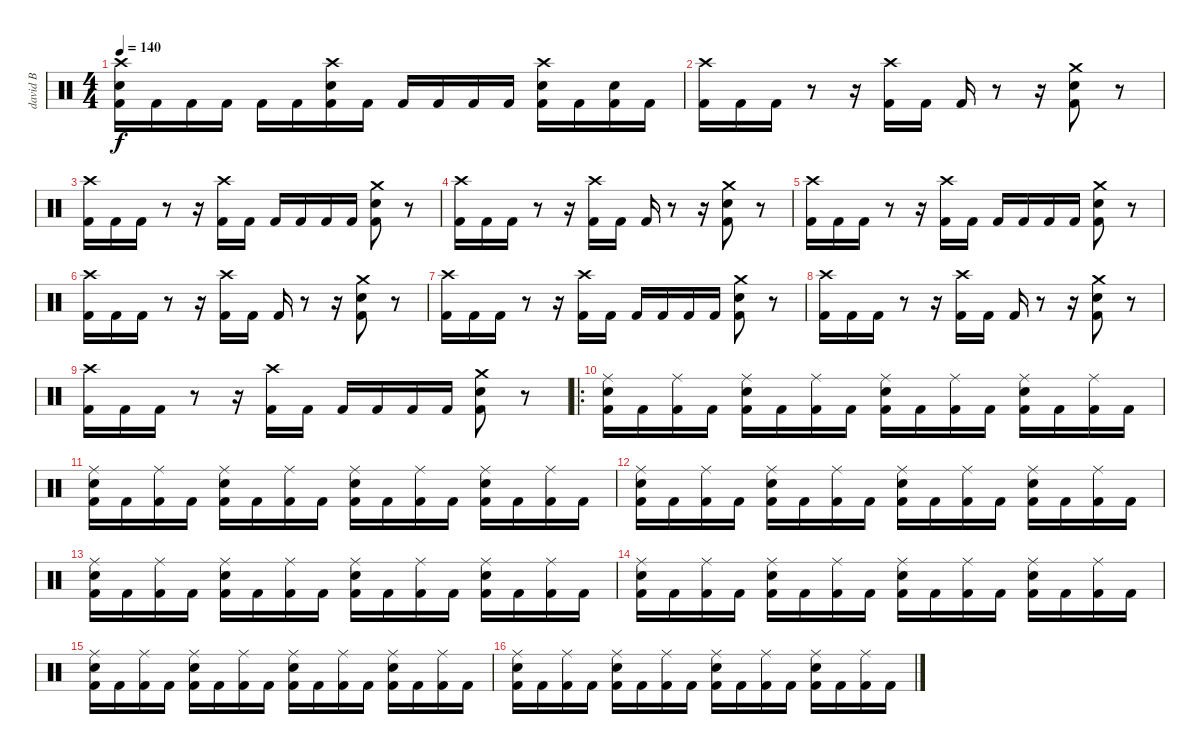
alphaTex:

\track ("david B" "david B") {instrument percussion}
\staff {score}
\articulation defaults
\ts (4 4)
\tempo 140
\clef neutral
\ks c
("Crash high (hit)" "Electric Snare (hit)" "Kick (hit) 2").16{dy f} "Kick (hit) 2".16 "Kick (hit) 2".16 "Kick (hit) 2".16 "Kick (hit) 2".16 "Kick (hit) 2".16 ("Crash high (hit)" "Electric Snare (hit)" "Kick (hit) 2").16 "Kick (hit) 2".16 "Kick (hit) 2".16 "Kick (hit) 2".16 "Kick (hit) 2".16 "Kick (hit) 2".16 ("Crash high (hit)" "Electric Snare (hit)" "Kick (hit) 2").16 "Kick (hit) 2".16 ("Electric Snare (hit)" "Kick (hit) 2").16 "Kick (hit) 2".16 |
("Crash high (hit)" "Kick (hit) 2").16 "Kick (hit) 2".16 "Kick (hit) 2".16 r.8 r.16 ("Crash high (hit)" "Kick (hit) 2").16 "Kick (hit) 2".16 "Kick (hit) 2".16 r.8 r.16 ("Crash medium (hit)" "Electric Snare (hit)" "Kick (hit) 2").8 r.8 |
("Crash high (hit)" "Kick (hit) 2").16 "Kick (hit) 2".16 "Kick (hit) 2".16 r.8 r.16 ("Crash high (hit)" "Kick (hit) 2").16 "Kick (hit) 2".16 "Kick (hit) 2".16 "Kick (hit) 2".16 "Kick (hit) 2".16 "Kick (hit) 2".16 ("Crash medium (hit)" "Electric Snare (hit)" "Kick (hit) 2").8 r.8 |
("Crash high (hit)" "Kick (hit) 2").16 "Kick (hit) 2".16 "Kick (hit) 2".16 r.8 r.16 ("Crash high (hit)" "Kick (hit) 2").16 "Kick (hit) 2".16 "Kick (hit) 2".16 r.8 r.16 ("Crash medium (hit)" "Electric Snare (hit)" "Kick (hit) 2").8 r.8 |
("Crash high (hit)" "Kick (hit) 2").16 "Kick (hit) 2".16 "Kick (hit) 2".16 r.8 r.16 ("Crash high (hit)" "Kick (hit) 2").16 "Kick (hit) 2".16 "Kick (hit) 2".16 "Kick (hit) 2".16 "Kick (hit) 2".16 "Kick (hit) 2".16 ("Crash medium (hit)" "Electric Snare (hit)" "Kick (hit) 2").8 r.8 |
("Crash high (hit)" "Kick (hit) 2").16 "Kick (hit) 2".16 "Kick (hit) 2".16 r.8 r.16 ("Crash high (hit)" "Kick (hit) 2").16 "Kick (hit) 2".16 "Kick (hit) 2".16 r.8 r.16 ("Crash medium (hit)" "Electric Snare (hit)" "Kick (hit) 2").8 r.8 |
("Crash high (hit)" "Kick (hit) 2").16 "Kick (hit) 2".16 "Kick (hit) 2".16 r.8 r.16 ("Crash high (hit)" "Kick (hit) 2").16 "Kick (hit) 2".16 "Kick (hit) 2".16 "Kick (hit) 2".16 "Kick (hit) 2".16 "Kick (hit) 2".16 ("Crash medium (hit)" "Electric Snare (hit)" "Kick (hit) 2").8 r.8 |
("Crash high (hit)" "Kick (hit) 2").16 "Kick (hit) 2".16 "Kick (hit) 2".16 r.8 r.16 ("Crash high (hit)" "Kick (hit) 2").16 "Kick (hit) 2".16 "Kick (hit) 2".16 r.8 r.16 ("Crash medium (hit)" "Electric Snare (hit)" "Kick (hit) 2").8 r.8 |
("Crash high (hit)" "Kick (hit) 2").16 "Kick (hit) 2".16 "Kick (hit) 2".16 r.8 r.16 ("Crash high (hit)" "Kick (hit) 2").16 "Kick (hit) 2".16 "Kick (hit) 2".16 "Kick (hit) 2".16 "Kick (hit) 2".16 "Kick (hit) 2".16 ("Crash medium (hit)" "Electric Snare (hit)" "Kick (hit) 2").8 r.8 |
\ro
("Ride (middle)" "Electric Snare (hit)" "Kick (hit) 2").16 "Kick (hit) 2".16 ("Ride (middle)" "Kick (hit) 2").16 "Kick (hit) 2".16 ("Ride (middle)" "Electric Snare (hit)" "Kick (hit) 2").16 "Kick (hit) 2".16 ("Ride (middle)" "Kick (hit) 2").16 "Kick (hit) 2".16 ("Ride (middle)" "Electric Snare (hit)" "Kick (hit) 2").16 "Kick (hit) 2".16 ("Ride (middle)" "Kick (hit) 2").16 "Kick (hit) 2".16 ("Ride (middle)" "Electric Snare (hit)" "Kick (hit) 2").16 "Kick (hit) 2".16 ("Ride (middle)" "Kick (hit) 2").16 "Kick (hit) 2".16 |
("Ride (middle)" "Electric Snare (hit)" "Kick (hit) 2").16 "Kick (hit) 2".16 ("Ride (middle)" "Kick (hit) 2").16 "Kick (hit) 2".16 ("Ride (middle)" "Electric Snare (hit)" "Kick (hit) 2").16 "Kick (hit) 2".16 ("Ride (middle)" "Kick (hit) 2").16 "Kick (hit) 2".16 ("Ride (middle)" "Electric Snare (hit)" "Kick (hit) 2").16 "Kick (hit) 2".16 ("Ride (middle)" "Kick (hit) 2").16 "Kick (hit) 2".16 ("Ride (middle)" "Electric Snare (hit)" "Kick (hit) 2").16 "Kick (hit) 2".16 ("Ride (middle)" "Kick (hit) 2").16 "Kick (hit) 2".16 |
("Ride (middle)" "Electric Snare (hit)" "Kick (hit) 2").16 "Kick (hit) 2".16 ("Ride (middle)" "Kick (hit) 2").16 "Kick (hit) 2".16 ("Ride (middle)" "Electric Snare (hit)" "Kick (hit) 2").16 "Kick (hit) 2".16 ("Ride (middle)" "Kick (hit) 2").16 "Kick (hit) 2".16 ("Ride (middle)" "Electric Snare (hit)" "Kick (hit) 2").16 "Kick (hit) 2".16 ("Ride (middle)" "Kick (hit) 2").16 "Kick (hit) 2".16 ("Ride (middle)" "Electric Snare (hit)" "Kick (hit) 2").16 "Kick (hit) 2".16 ("Ride (middle)" "Kick (hit) 2").16 "Kick (hit) 2".16 |
("Ride (middle)" "Electric Snare (hit)" "Kick (hit) 2").16 "Kick (hit) 2".16 ("Ride (middle)" "Kick (hit) 2").16 "Kick (hit) 2".16 ("Ride (middle)" "Electric Snare (hit)" "Kick (hit) 2").16 "Kick (hit) 2".16 ("Ride (middle)" "Kick (hit) 2").16 "Kick (hit) 2".16 ("Ride (middle)" "Electric Snare (hit)" "Kick (hit) 2").16 "Kick (hit) 2".16 ("Ride (middle)" "Kick (hit) 2").16 "Kick (hit) 2".16 ("Ride (middle)" "Electric Snare (hit)" "Kick (hit) 2").16 "Kick (hit) 2".16 ("Ride (middle)" "Kick (hit) 2").16 "Kick (hit) 2".16 |
("Ride (middle)" "Electric Snare (hit)" "Kick (hit) 2").16 "Kick (hit) 2".16 ("Ride (middle)" "Kick (hit) 2").16 "Kick (hit) 2".16 ("Ride (middle)" "Electric Snare (hit)" "Kick (hit) 2").16 "Kick (hit) 2".16 ("Ride (middle)" "Kick (hit) 2").16 "Kick (hit) 2".16 ("Ride (middle)" "Electric Snare (hit)" "Kick (hit) 2").16 "Kick (hit) 2".16 ("Ride (middle)" "Kick (hit) 2").16 "Kick (hit) 2".16 ("Ride (middle)" "Electric Snare (hit)" "Kick (hit) 2").16 "Kick (hit) 2".16 ("Ride (middle)" "Kick (hit) 2").16 "Kick (hit) 2".16 |
("Ride (middle)" "Electric Snare (hit)" "Kick (hit) 2").16 "Kick (hit) 2".16 ("Ride (middle)" "Kick (hit) 2").16 "Kick (hit) 2".16 ("Ride (middle)" "Electric Snare (hit)" "Kick (hit) 2").16 "Kick (hit) 2".16 ("Ride (middle)" "Kick (hit) 2").16 "Kick (hit) 2".16 ("Ride (middle)" "Electric Snare (hit)" "Kick (hit) 2").16 "Kick (hit) 2".16 ("Ride (middle)" "Kick (hit) 2").16 "Kick (hit) 2".16 ("Ride (middle)" "Electric Snare (hit)" "Kick (hit) 2").16 "Kick (hit) 2".16 ("Ride (middle)" "Kick (hit) 2").16 "Kick (hit) 2".16 |
("Ride (middle)" "Electric Snare (hit)" "Kick (hit) 2").16 "Kick (hit) 2".16 ("Ride (middle)" "Kick (hit) 2").16 "Kick (hit) 2".16 ("Ride (middle)" "Electric Snare (hit)" "Kick (hit) 2").16 "Kick (hit) 2".16 ("Ride (middle)" "Kick (hit) 2").16 "Kick (hit) 2".16 ("Ride (middle)" "Electric Snare (hit)" "Kick (hit) 2").16 "Kick (hit) 2".16 ("Ride (middle)" "Kick (hit) 2").16 "Kick (hit) 2".16 ("Ride (middle)" "Electric Snare (hit)" "Kick (hit) 2").16 "Kick (hit) 2".16 ("Ride (middle)" "Kick (hit) 2").16 "Kick (hit) 2".16
